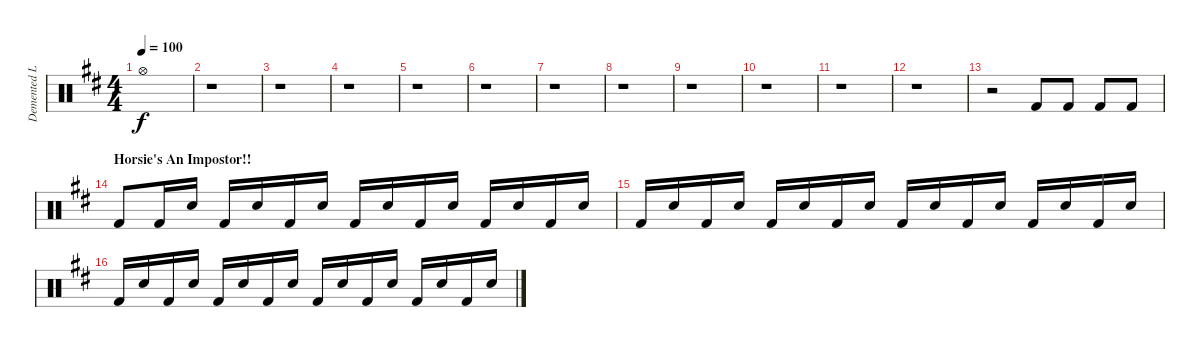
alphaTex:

\track ("Demented Leming (Drums)" "Demented L") {instrument percussion}
\staff {score}
\articulation defaults
\ts (4 4)
\tempo 100
\clef neutral
\ks d "Hi-Hat (open)".1{dy f}
|
r.1 |
r.1 |
r.1 |
r.1 |
r.1 |
r.1 |
r.1 |
r.1 |
r.1 |
r.1 |
r.1 |
r.2 "Kick (hit) 2".8 "Kick (hit) 2".8 "Kick (hit) 2".8 "Kick (hit) 2".8 |
\section ("" "Horsie's An Impostor!!")
"Kick (hit) 2".8 "Kick (hit) 2".16 "Snare (hit) 2".16 "Kick (hit) 2".16 "Snare (hit) 2".16 "Kick (hit) 2".16 "Snare (hit) 2".16 "Kick (hit) 2".16 "Snare (hit) 2".16 "Kick (hit) 2".16 "Snare (hit) 2".16 "Kick (hit) 2".16 "Snare (hit) 2".16 "Kick (hit) 2".16 "Snare (hit) 2".16 |
"Kick (hit) 2".16 "Snare (hit) 2".16 "Kick (hit) 2".16 "Snare (hit) 2".16 "Kick (hit) 2".16 "Snare (hit) 2".16 "Kick (hit) 2".16 "Snare (hit) 2".16 "Kick (hit) 2".16 "Snare (hit) 2".16 "Kick (hit) 2".16 "Snare (hit) 2".16 "Kick (hit) 2".16 "Snare (hit) 2".16 "Kick (hit) 2".16 "Snare (hit) 2".16 |
"Kick (hit) 2".16 "Snare (hit) 2".16 "Kick (hit) 2".16 "Snare (hit) 2".16 "Kick (hit) 2".16 "Snare (hit) 2".16 "Kick (hit) 2".16 "Snare (hit) 2".16 "Kick (hit) 2".16 "Snare (hit) 2".16 "Kick (hit) 2".16 "Snare (hit) 2".16 "Kick (hit) 2".16 "Snare (hit) 2".16 "Kick (hit) 2".16 "Snare (hit) 2".16
